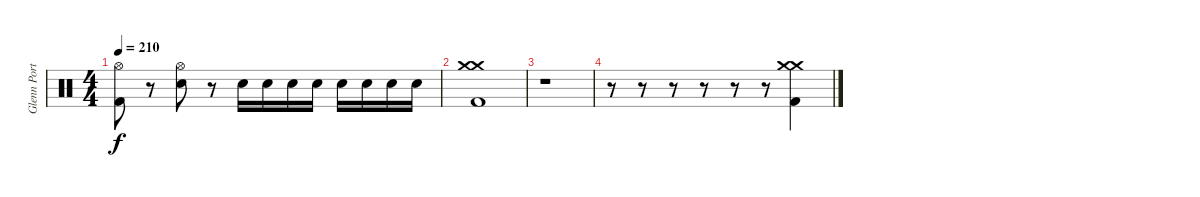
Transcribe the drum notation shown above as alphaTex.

\track ("Glenn Porter - Drums" "Glenn Port") {instrument percussion}
\staff {score}
\articulation defaults
\ts (4 4)
\tempo 210
\clef neutral
\ks c
("Hi-Hat (open)" "Kick (hit) 2").8{dy f} r.8 ("Hi-Hat (open)" "Electric Snare (hit)").8 r.8 "Electric Snare (hit)".16 "Electric Snare (hit)".16 "Electric Snare (hit)".16 "Electric Snare (hit)".16 "Electric Snare (hit)".16 "Electric Snare (hit)".16 "Electric Snare (hit)".16 "Electric Snare (hit)".16 |
("Crash medium (hit)" "Crash medium (hit)" "Kick (hit) 2").1 |
r.1 |
r.8 r.8 r.8 r.8 r.8 r.8 ("Crash medium (hit)" "Crash medium (hit)" "Kick (hit) 2").4
